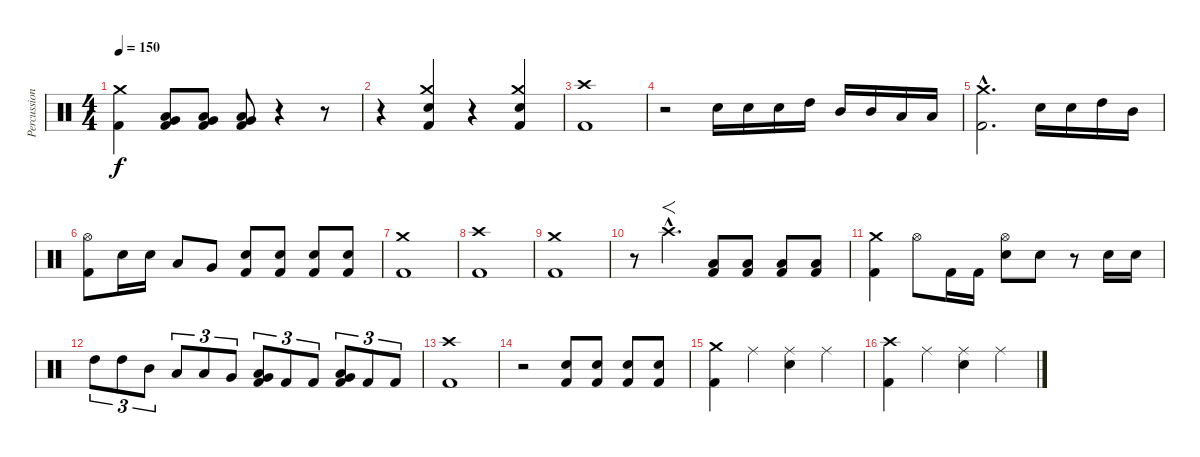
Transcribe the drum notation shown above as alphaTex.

\track ("Percussion" "Percussion") {instrument percussion}
\staff {score}
\articulation defaults
\ts (4 4)
\tempo 150
\clef neutral
\ks c
("Kick (hit) 2" "Crash medium (hit)").4{dy f} ("Kick (hit) 2" "Low Tom (hit)" "Very Low Tom (hit)").8 ("Kick (hit) 2" "Low Tom (hit)" "Very Low Tom (hit)").8 ("Kick (hit) 2" "Low Tom (hit)" "Very Low Tom (hit)").8 r.4 r.8 |
r.4 ("Kick (hit) 2" "Electric Snare (hit)" "Crash medium (hit)").4 r.4 ("Kick (hit) 2" "Electric Snare (hit)" "Crash medium (hit)").4 |
("Kick (hit) 2" "Crash high (hit)").1 |
r.2 "Electric Snare (hit)".16 "Electric Snare (hit)".16 "Electric Snare (hit)".16 "High Tom (hit)".16 "Mid Tom (hit)".16 "Mid Tom (hit)".16 "Low Tom (hit)".16 "Low Tom (hit)".16 |
("Kick (hit) 2"{hac} "Crash medium (hit)"{hac}).2{d} "Electric Snare (hit)".16 "Electric Snare (hit)".16 "High Tom (hit)".16 "Mid Tom (hit)".16 |
("Kick (hit) 2" "Hi-Hat (open)").8 "Electric Snare (hit)".16 "Electric Snare (hit)".16 "Low Tom (hit)".8 "Very Low Tom (hit)".8 ("Kick (hit) 2" "Electric Snare (hit)").8 ("Kick (hit) 2" "Electric Snare (hit)").8 ("Kick (hit) 2" "Electric Snare (hit)").8 ("Kick (hit) 2" "Electric Snare (hit)").8 |
("Kick (hit) 2" "Crash medium (hit)").1 |
("Kick (hit) 2" "Crash high (hit)").1 |
("Kick (hit) 2" "Crash medium (hit)").1 |
r.8 "Crash high (hit)"{hac}.4{f d} ("Kick (hit) 2" "Low Tom (hit)").8 ("Kick (hit) 2" "Low Tom (hit)").8 ("Kick (hit) 2" "Low Tom (hit)").8 ("Kick (hit) 2" "Low Tom (hit)").8 |
("Kick (hit) 2" "Crash medium (hit)").4 "Hi-Hat (open)".8 "Kick (hit) 2".16 "Kick (hit) 2".16 ("Electric Snare (hit)" "Hi-Hat (open)").8 "Electric Snare (hit)".8 r.8 "Electric Snare (hit)".16 "Electric Snare (hit)".16 |
"High Tom (hit)".8{tu (3 2)} "High Tom (hit)".8{tu (3 2)} "Mid Tom (hit)".8{tu (3 2)} "Low Tom (hit)".8{tu (3 2)} "Low Tom (hit)".8{tu (3 2)} "Very Low Tom (hit)".8{tu (3 2)} ("Kick (hit) 2" "Low Tom (hit)" "Very Low Tom (hit)").8{tu (3 2)} "Kick (hit) 2".8{tu (3 2)} "Kick (hit) 2".8{tu (3 2)} ("Kick (hit) 2" "Very Low Tom (hit)" "Low Floor Tom (hit)").8{tu (3 2)} "Kick (hit) 2".8{tu (3 2)} "Kick (hit) 2".8{tu (3 2)} |
("Kick (hit) 2" "Crash high (hit)").1 |
r.2 ("Kick (hit) 2" "Electric Snare (hit)").8 ("Kick (hit) 2" "Electric Snare (hit)").8 ("Kick (hit) 2" "Electric Snare (hit)").8 ("Kick (hit) 2" "Electric Snare (hit)").8 |
("Kick (hit) 2" "Crash medium (hit)").4 "Ride (middle)".4 ("Electric Snare (hit)" "Ride (middle)").4 "Ride (middle)".4 |
("Kick (hit) 2" "Crash high (hit)").4 "Ride (middle)".4 ("Electric Snare (hit)" "Ride (middle)").4 "Ride (middle)".4
